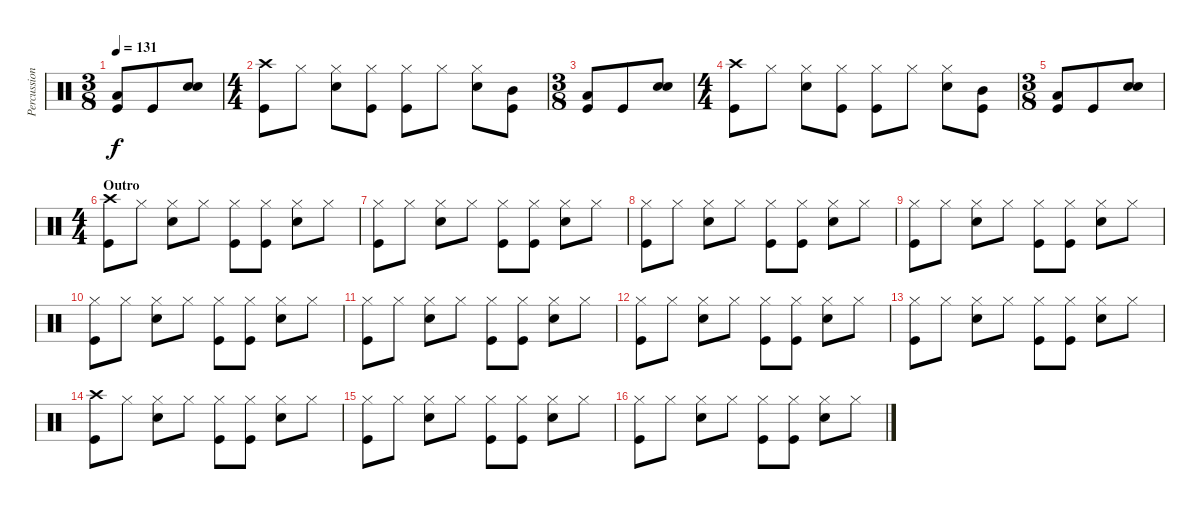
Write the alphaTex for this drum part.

\track ("Percussions" "Percussion") {instrument percussion}
\staff {score}
\articulation defaults
\ts (3 8)
\tempo 131
\clef neutral
\ks c
("Low Tom (hit)" "Kick (hit)").8{dy f} "Kick (hit)".8 ("Electric Snare (hit)" "Electric Snare (hit)").8{bd 120} |
\ts (4 4)
("Crash high (hit)" "Kick (hit)").8 "Hi-Hat (closed)".8 ("Hi-Hat (closed)" "Electric Snare (hit)").8 ("Hi-Hat (closed)" "Kick (hit)").8 ("Hi-Hat (closed)" "Kick (hit)").8 "Hi-Hat (closed)".8 ("Hi-Hat (closed)" "Electric Snare (hit)").8 ("Mid Tom (hit)" "Kick (hit)").8 |
\ts (3 8)
("Low Tom (hit)" "Kick (hit)").8 "Kick (hit)".8 ("Electric Snare (hit)" "Electric Snare (hit)").8{bd 120} |
\ts (4 4)
("Crash high (hit)" "Kick (hit)").8 "Hi-Hat (closed)".8 ("Hi-Hat (closed)" "Electric Snare (hit)").8 ("Hi-Hat (closed)" "Kick (hit)").8 ("Hi-Hat (closed)" "Kick (hit)").8 "Hi-Hat (closed)".8 ("Hi-Hat (closed)" "Electric Snare (hit)").8 ("Mid Tom (hit)" "Kick (hit)").8 |
\ts (3 8)
("Low Tom (hit)" "Kick (hit)").8 "Kick (hit)".8 ("Electric Snare (hit)" "Electric Snare (hit)").8{bd 120} |
\ts (4 4)
\section ("" "Outro")
("Crash high (hit)" "Kick (hit)").8 "Hi-Hat (closed)".8 ("Hi-Hat (closed)" "Electric Snare (hit)").8 "Hi-Hat (closed)".8 ("Hi-Hat (closed)" "Kick (hit)").8 ("Hi-Hat (closed)" "Kick (hit)").8 ("Hi-Hat (closed)" "Electric Snare (hit)").8 "Hi-Hat (closed)".8 |
("Hi-Hat (closed)" "Kick (hit)").8 "Hi-Hat (closed)".8 ("Hi-Hat (closed)" "Electric Snare (hit)").8 "Hi-Hat (closed)".8 ("Hi-Hat (closed)" "Kick (hit)").8 ("Hi-Hat (closed)" "Kick (hit)").8 ("Hi-Hat (closed)" "Electric Snare (hit)").8 "Hi-Hat (closed)".8 |
("Hi-Hat (closed)" "Kick (hit)").8 "Hi-Hat (closed)".8 ("Hi-Hat (closed)" "Electric Snare (hit)").8 "Hi-Hat (closed)".8 ("Hi-Hat (closed)" "Kick (hit)").8 ("Hi-Hat (closed)" "Kick (hit)").8 ("Hi-Hat (closed)" "Electric Snare (hit)").8 "Hi-Hat (closed)".8 |
("Hi-Hat (closed)" "Kick (hit)").8 "Hi-Hat (closed)".8 ("Hi-Hat (closed)" "Electric Snare (hit)").8 "Hi-Hat (closed)".8 ("Hi-Hat (closed)" "Kick (hit)").8 ("Hi-Hat (closed)" "Kick (hit)").8 ("Hi-Hat (closed)" "Electric Snare (hit)").8 "Hi-Hat (closed)".8 |
("Hi-Hat (closed)" "Kick (hit)").8 "Hi-Hat (closed)".8 ("Hi-Hat (closed)" "Electric Snare (hit)").8 "Hi-Hat (closed)".8 ("Hi-Hat (closed)" "Kick (hit)").8 ("Hi-Hat (closed)" "Kick (hit)").8 ("Hi-Hat (closed)" "Electric Snare (hit)").8 "Hi-Hat (closed)".8 |
("Hi-Hat (closed)" "Kick (hit)").8 "Hi-Hat (closed)".8 ("Hi-Hat (closed)" "Electric Snare (hit)").8 "Hi-Hat (closed)".8 ("Hi-Hat (closed)" "Kick (hit)").8 ("Hi-Hat (closed)" "Kick (hit)").8 ("Hi-Hat (closed)" "Electric Snare (hit)").8 "Hi-Hat (closed)".8 |
("Hi-Hat (closed)" "Kick (hit)").8 "Hi-Hat (closed)".8 ("Hi-Hat (closed)" "Electric Snare (hit)").8 "Hi-Hat (closed)".8 ("Hi-Hat (closed)" "Kick (hit)").8 ("Hi-Hat (closed)" "Kick (hit)").8 ("Hi-Hat (closed)" "Electric Snare (hit)").8 "Hi-Hat (closed)".8 |
("Hi-Hat (closed)" "Kick (hit)").8 "Hi-Hat (closed)".8 ("Hi-Hat (closed)" "Electric Snare (hit)").8 "Hi-Hat (closed)".8 ("Hi-Hat (closed)" "Kick (hit)").8 ("Hi-Hat (closed)" "Kick (hit)").8 ("Hi-Hat (closed)" "Electric Snare (hit)").8 "Hi-Hat (closed)".8 |
("Crash high (hit)" "Kick (hit)").8 "Hi-Hat (closed)".8 ("Hi-Hat (closed)" "Electric Snare (hit)").8 "Hi-Hat (closed)".8 ("Hi-Hat (closed)" "Kick (hit)").8 ("Hi-Hat (closed)" "Kick (hit)").8 ("Hi-Hat (closed)" "Electric Snare (hit)").8 "Hi-Hat (closed)".8 |
("Hi-Hat (closed)" "Kick (hit)").8 "Hi-Hat (closed)".8 ("Hi-Hat (closed)" "Electric Snare (hit)").8 "Hi-Hat (closed)".8 ("Hi-Hat (closed)" "Kick (hit)").8 ("Hi-Hat (closed)" "Kick (hit)").8 ("Hi-Hat (closed)" "Electric Snare (hit)").8 "Hi-Hat (closed)".8 |
("Hi-Hat (closed)" "Kick (hit)").8 "Hi-Hat (closed)".8 ("Hi-Hat (closed)" "Electric Snare (hit)").8 "Hi-Hat (closed)".8 ("Hi-Hat (closed)" "Kick (hit)").8 ("Hi-Hat (closed)" "Kick (hit)").8 ("Hi-Hat (closed)" "Electric Snare (hit)").8 "Hi-Hat (closed)".8
